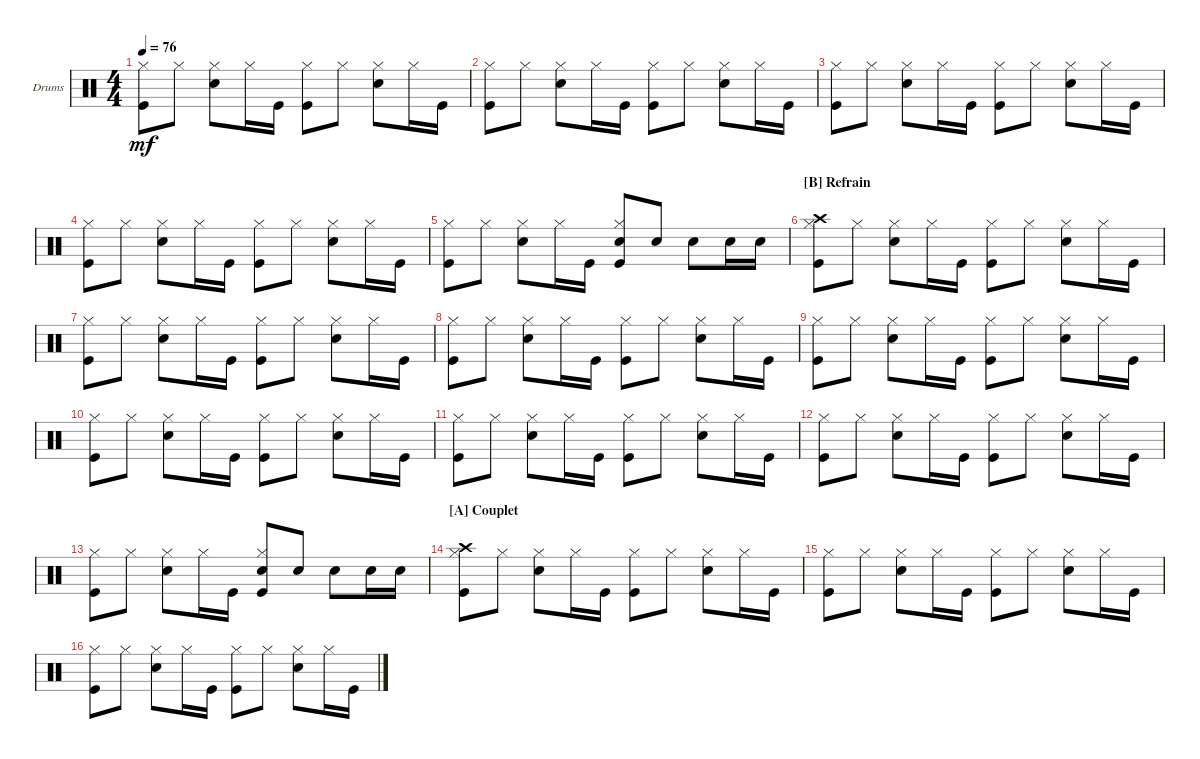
\defaultSystemsLayout 4
\bracketExtendMode groupsimilarinstruments
\firstSystemTrackNameOrientation horizontal
\otherSystemsTrackNameOrientation horizontal
\track ("Drums" "Drums") {instrument percussion}
\staff {score}
\articulation defaults
\ts (4 4)
\tempo 76
\clef neutral
\ks c
("Kick (hit)" "Hi-Hat (closed)").8{dy mf} "Hi-Hat (closed)".8 ("Hi-Hat (closed)" "Snare (hit) 2").8 "Hi-Hat (closed)".16 "Kick (hit)".16 ("Hi-Hat (closed)" "Kick (hit)").8 "Hi-Hat (closed)".8 ("Hi-Hat (closed)" "Snare (hit) 2").8 "Hi-Hat (closed)".16 "Kick (hit)".16 |
("Kick (hit)" "Hi-Hat (closed)").8 "Hi-Hat (closed)".8 ("Hi-Hat (closed)" "Snare (hit) 2").8 "Hi-Hat (closed)".16 "Kick (hit)".16 ("Hi-Hat (closed)" "Kick (hit)").8 "Hi-Hat (closed)".8 ("Hi-Hat (closed)" "Snare (hit) 2").8 "Hi-Hat (closed)".16 "Kick (hit)".16 |
("Kick (hit)" "Hi-Hat (closed)").8 "Hi-Hat (closed)".8 ("Hi-Hat (closed)" "Snare (hit) 2").8 "Hi-Hat (closed)".16 "Kick (hit)".16 ("Hi-Hat (closed)" "Kick (hit)").8 "Hi-Hat (closed)".8 ("Hi-Hat (closed)" "Snare (hit) 2").8 "Hi-Hat (closed)".16 "Kick (hit)".16 |
("Kick (hit)" "Hi-Hat (closed)").8 "Hi-Hat (closed)".8 ("Hi-Hat (closed)" "Snare (hit) 2").8 "Hi-Hat (closed)".16 "Kick (hit)".16 ("Hi-Hat (closed)" "Kick (hit)").8 "Hi-Hat (closed)".8 ("Hi-Hat (closed)" "Snare (hit) 2").8 "Hi-Hat (closed)".16 "Kick (hit)".16 |
("Kick (hit)" "Hi-Hat (closed)").8 "Hi-Hat (closed)".8 ("Hi-Hat (closed)" "Snare (hit) 2").8 "Hi-Hat (closed)".16 "Kick (hit)".16 ("Hi-Hat (closed)" "Kick (hit)" "Snare (hit) 2").8 "Snare (hit) 2".8 "Snare (hit) 2".8 "Snare (hit) 2".16 "Snare (hit) 2".16 |
\section ("B" "Refrain")
("Crash high (hit)" "Kick (hit)" "Hi-Hat (closed)").8 "Hi-Hat (closed)".8 ("Hi-Hat (closed)" "Snare (hit) 2").8 "Hi-Hat (closed)".16 "Kick (hit)".16 ("Hi-Hat (closed)" "Kick (hit)").8 "Hi-Hat (closed)".8 ("Hi-Hat (closed)" "Snare (hit) 2").8 "Hi-Hat (closed)".16 "Kick (hit)".16 |
("Kick (hit)" "Hi-Hat (closed)").8 "Hi-Hat (closed)".8 ("Hi-Hat (closed)" "Snare (hit) 2").8 "Hi-Hat (closed)".16 "Kick (hit)".16 ("Hi-Hat (closed)" "Kick (hit)").8 "Hi-Hat (closed)".8 ("Hi-Hat (closed)" "Snare (hit) 2").8 "Hi-Hat (closed)".16 "Kick (hit)".16 |
("Kick (hit)" "Hi-Hat (closed)").8 "Hi-Hat (closed)".8 ("Hi-Hat (closed)" "Snare (hit) 2").8 "Hi-Hat (closed)".16 "Kick (hit)".16 ("Hi-Hat (closed)" "Kick (hit)").8 "Hi-Hat (closed)".8 ("Hi-Hat (closed)" "Snare (hit) 2").8 "Hi-Hat (closed)".16 "Kick (hit)".16 |
("Kick (hit)" "Hi-Hat (closed)").8 "Hi-Hat (closed)".8 ("Hi-Hat (closed)" "Snare (hit) 2").8 "Hi-Hat (closed)".16 "Kick (hit)".16 ("Hi-Hat (closed)" "Kick (hit)").8 "Hi-Hat (closed)".8 ("Hi-Hat (closed)" "Snare (hit) 2").8 "Hi-Hat (closed)".16 "Kick (hit)".16 |
("Kick (hit)" "Hi-Hat (closed)").8 "Hi-Hat (closed)".8 ("Hi-Hat (closed)" "Snare (hit) 2").8 "Hi-Hat (closed)".16 "Kick (hit)".16 ("Hi-Hat (closed)" "Kick (hit)").8 "Hi-Hat (closed)".8 ("Hi-Hat (closed)" "Snare (hit) 2").8 "Hi-Hat (closed)".16 "Kick (hit)".16 |
("Kick (hit)" "Hi-Hat (closed)").8 "Hi-Hat (closed)".8 ("Hi-Hat (closed)" "Snare (hit) 2").8 "Hi-Hat (closed)".16 "Kick (hit)".16 ("Hi-Hat (closed)" "Kick (hit)").8 "Hi-Hat (closed)".8 ("Hi-Hat (closed)" "Snare (hit) 2").8 "Hi-Hat (closed)".16 "Kick (hit)".16 |
("Kick (hit)" "Hi-Hat (closed)").8 "Hi-Hat (closed)".8 ("Hi-Hat (closed)" "Snare (hit) 2").8 "Hi-Hat (closed)".16 "Kick (hit)".16 ("Hi-Hat (closed)" "Kick (hit)").8 "Hi-Hat (closed)".8 ("Hi-Hat (closed)" "Snare (hit) 2").8 "Hi-Hat (closed)".16 "Kick (hit)".16 |
("Kick (hit)" "Hi-Hat (closed)").8 "Hi-Hat (closed)".8 ("Hi-Hat (closed)" "Snare (hit) 2").8 "Hi-Hat (closed)".16 "Kick (hit)".16 ("Hi-Hat (closed)" "Kick (hit)" "Snare (hit) 2").8 "Snare (hit) 2".8 "Snare (hit) 2".8 "Snare (hit) 2".16 "Snare (hit) 2".16 |
\section ("A" "Couplet")
("Crash high (hit)" "Kick (hit)" "Hi-Hat (closed)").8 "Hi-Hat (closed)".8 ("Hi-Hat (closed)" "Snare (hit) 2").8 "Hi-Hat (closed)".16 "Kick (hit)".16 ("Hi-Hat (closed)" "Kick (hit)").8 "Hi-Hat (closed)".8 ("Hi-Hat (closed)" "Snare (hit) 2").8 "Hi-Hat (closed)".16 "Kick (hit)".16 |
("Kick (hit)" "Hi-Hat (closed)").8 "Hi-Hat (closed)".8 ("Hi-Hat (closed)" "Snare (hit) 2").8 "Hi-Hat (closed)".16 "Kick (hit)".16 ("Hi-Hat (closed)" "Kick (hit)").8 "Hi-Hat (closed)".8 ("Hi-Hat (closed)" "Snare (hit) 2").8 "Hi-Hat (closed)".16 "Kick (hit)".16 |
("Kick (hit)" "Hi-Hat (closed)").8 "Hi-Hat (closed)".8 ("Hi-Hat (closed)" "Snare (hit) 2").8 "Hi-Hat (closed)".16 "Kick (hit)".16 ("Hi-Hat (closed)" "Kick (hit)").8 "Hi-Hat (closed)".8 ("Hi-Hat (closed)" "Snare (hit) 2").8 "Hi-Hat (closed)".16 "Kick (hit)".16
